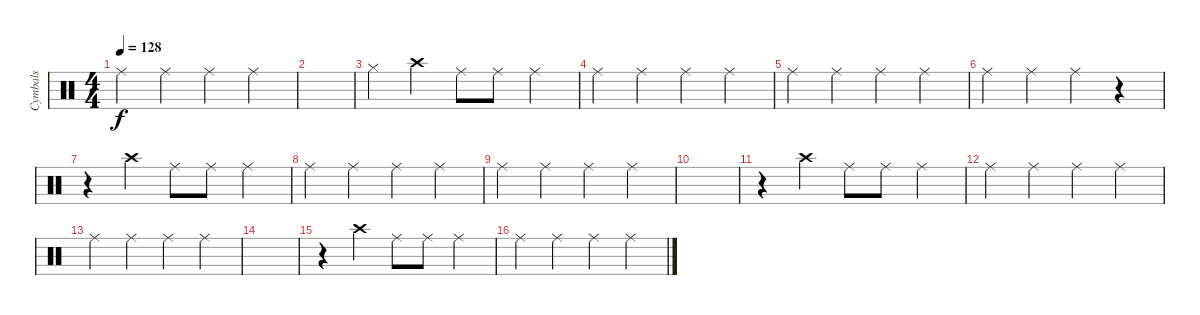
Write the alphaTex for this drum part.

\track ("Cymbals" "Cymbals") {instrument percussion}
\staff {score}
\articulation defaults
\ts (4 4)
\tempo 128
\clef neutral
\ks c "Ride (middle)".4{dy f} "Ride (middle)".4 "Ride (middle)".4 "Ride (middle)".4
|
|
"Hi-Hat (closed)".4 "Crash high (hit)".4 "Ride (middle)".8 "Ride (middle)".8 "Ride (middle)".4 |
"Ride (middle)".4 "Ride (middle)".4 "Ride (middle)".4 "Ride (middle)".4 |
"Ride (middle)".4 "Ride (middle)".4 "Ride (middle)".4 "Ride (middle)".4 |
"Ride (middle)".4 "Ride (middle)".4 "Ride (middle)".4 r.4 |
r.4 "Crash high (hit)".4 "Ride (middle)".8 "Ride (middle)".8 "Ride (middle)".4 |
"Ride (middle)".4 "Ride (middle)".4 "Ride (middle)".4 "Ride (middle)".4 |
"Ride (middle)".4 "Ride (middle)".4 "Ride (middle)".4 "Ride (middle)".4 |
|
r.4 "Crash high (hit)".4 "Ride (middle)".8 "Ride (middle)".8 "Ride (middle)".4 |
"Ride (middle)".4 "Ride (middle)".4 "Ride (middle)".4 "Ride (middle)".4 |
"Ride (middle)".4 "Ride (middle)".4 "Ride (middle)".4 "Ride (middle)".4 |
|
r.4 "Crash high (hit)".4 "Ride (middle)".8 "Ride (middle)".8 "Ride (middle)".4 |
"Ride (middle)".4{volume 5} "Ride (middle)".4 "Ride (middle)".4 "Ride (middle)".4
